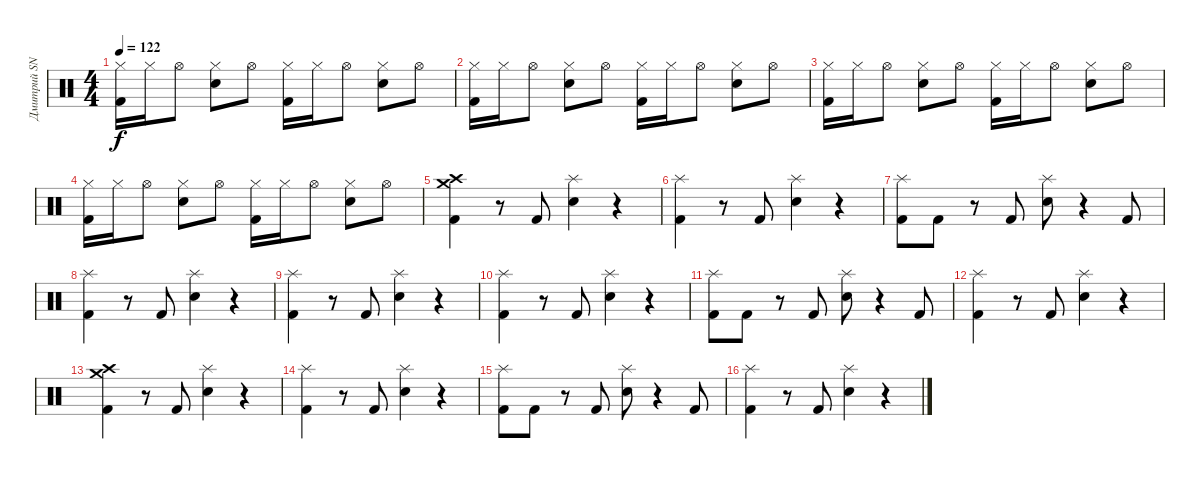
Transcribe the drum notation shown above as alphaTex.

\track ("Дмитрий SNAKE Хакимов" "Дмитрий SN") {instrument percussion}
\staff {score}
\articulation defaults
\ts (4 4)
\tempo 122
\clef neutral
\ks c
("Hi-Hat (closed)" "Kick (hit) 2").16{dy f} "Hi-Hat (closed)".16 "Hi-Hat (open)".8 ("Hi-Hat (closed)" "Snare (hit) 2").8 "Hi-Hat (open)".8 ("Hi-Hat (closed)" "Kick (hit) 2").16 "Hi-Hat (closed)".16 "Hi-Hat (open)".8 ("Hi-Hat (closed)" "Snare (hit) 2").8 "Hi-Hat (open)".8 |
("Hi-Hat (closed)" "Kick (hit) 2").16 "Hi-Hat (closed)".16 "Hi-Hat (open)".8 ("Hi-Hat (closed)" "Snare (hit) 2").8 "Hi-Hat (open)".8 ("Hi-Hat (closed)" "Kick (hit) 2").16 "Hi-Hat (closed)".16 "Hi-Hat (open)".8 ("Hi-Hat (closed)" "Snare (hit) 2").8 "Hi-Hat (open)".8 |
("Hi-Hat (closed)" "Kick (hit) 2").16 "Hi-Hat (closed)".16 "Hi-Hat (open)".8 ("Hi-Hat (closed)" "Snare (hit) 2").8 "Hi-Hat (open)".8 ("Hi-Hat (closed)" "Kick (hit) 2").16 "Hi-Hat (closed)".16 "Hi-Hat (open)".8 ("Hi-Hat (closed)" "Snare (hit) 2").8 "Hi-Hat (open)".8 |
("Hi-Hat (closed)" "Kick (hit) 2").16 "Hi-Hat (closed)".16 "Hi-Hat (open)".8 ("Hi-Hat (closed)" "Snare (hit) 2").8 "Hi-Hat (open)".8 ("Hi-Hat (closed)" "Kick (hit) 2").16 "Hi-Hat (closed)".16 "Hi-Hat (open)".8 ("Hi-Hat (closed)" "Snare (hit) 2").8 "Hi-Hat (open)".8 |
("Crash high (hit)" "Crash medium (hit)" "Kick (hit) 2").4 r.8 "Kick (hit) 2".8 ("Splash (hit)" "Snare (hit) 2").4 r.4 |
("Splash (hit)" "Kick (hit) 2").4 r.8 "Kick (hit) 2".8 ("Splash (hit)" "Snare (hit) 2").4 r.4 |
("Splash (hit)" "Kick (hit) 2").8 "Kick (hit) 2".8 r.8 "Kick (hit) 2".8 ("Splash (hit)" "Snare (hit) 2").8 r.4 "Kick (hit) 2".8 |
("Splash (hit)" "Kick (hit) 2").4 r.8 "Kick (hit) 2".8 ("Splash (hit)" "Snare (hit) 2").4 r.4 |
("Splash (hit)" "Kick (hit) 2").4 r.8 "Kick (hit) 2".8 ("Splash (hit)" "Snare (hit) 2").4 r.4 |
("Splash (hit)" "Kick (hit) 2").4 r.8 "Kick (hit) 2".8 ("Splash (hit)" "Snare (hit) 2").4 r.4 |
("Splash (hit)" "Kick (hit) 2").8 "Kick (hit) 2".8 r.8 "Kick (hit) 2".8 ("Splash (hit)" "Snare (hit) 2").8 r.4 "Kick (hit) 2".8 |
("Splash (hit)" "Kick (hit) 2").4 r.8 "Kick (hit) 2".8 ("Splash (hit)" "Snare (hit) 2").4 r.4 |
("Crash high (hit)" "Crash medium (hit)" "Kick (hit) 2").4 r.8 "Kick (hit) 2".8 ("Splash (hit)" "Snare (hit) 2").4 r.4 |
("Splash (hit)" "Kick (hit) 2").4 r.8 "Kick (hit) 2".8 ("Splash (hit)" "Snare (hit) 2").4 r.4 |
("Splash (hit)" "Kick (hit) 2").8 "Kick (hit) 2".8 r.8 "Kick (hit) 2".8 ("Splash (hit)" "Snare (hit) 2").8 r.4 "Kick (hit) 2".8 |
("Splash (hit)" "Kick (hit) 2").4 r.8 "Kick (hit) 2".8 ("Splash (hit)" "Snare (hit) 2").4 r.4
